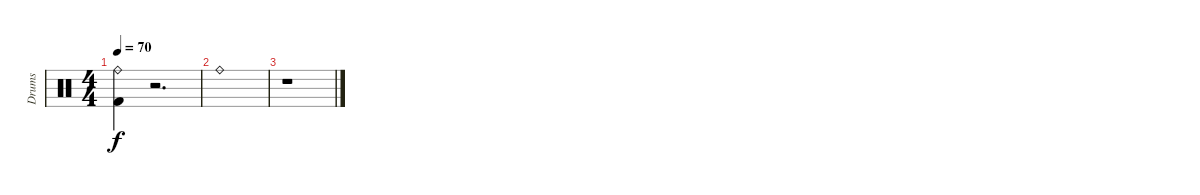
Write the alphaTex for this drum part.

\track ("Drums" "Drums") {instrument percussion}
\staff {score}
\articulation defaults
\ts (4 4)
\tempo 70
\clef neutral
\ks c
("Ride (bell)" "Kick (hit) 2").4{dy f} r.2{d} |
"Ride (bell)".1 |
r.1
